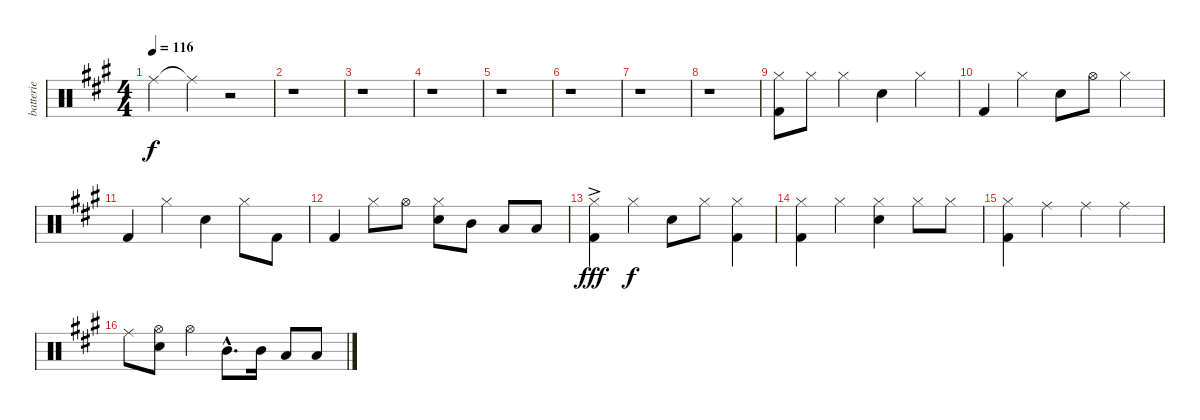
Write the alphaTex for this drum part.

\track ("batterie" "batterie") {instrument percussion}
\staff {score}
\articulation defaults
\ts (4 4)
\tempo 116
\clef neutral
\ks a "Ride (middle)".4{dy f} "Ride (middle)"{t}.4
r.2 |
r.1 |
r.1 |
r.1 |
r.1 |
r.1 |
r.1 |
r.1 |
("Hi-Hat (closed)" "Kick (hit) 2").8 "Hi-Hat (closed)".8 "Hi-Hat (closed)".4 "Snare (hit) 2".4 "Hi-Hat (closed)".4 |
"Kick (hit) 2".4 "Hi-Hat (closed)".4 "Snare (hit) 2".8 "Hi-Hat (open)".8 "Hi-Hat (closed)".4 |
"Kick (hit) 2".4 "Hi-Hat (closed)".4 "Snare (hit) 2".4 "Hi-Hat (closed)".8 "Kick (hit) 2".8 |
"Kick (hit) 2".4 "Hi-Hat (closed)".8 "Hi-Hat (open)".8 ("Hi-Hat (closed)" "Snare (hit) 2").8 "Mid Tom (hit)".8 "Low Tom (hit)".8 "Low Floor Tom (hit)".8 |
("Kick (hit) 2"{ac} "Hi-Hat (closed)").4{dy fff} "Hi-Hat (closed)".4{dy f} "Snare (hit) 2".8 "Hi-Hat (closed)".8 ("Kick (hit) 2" "Hi-Hat (closed)").4 |
("Hi-Hat (closed)" "Kick (hit) 2").4 "Hi-Hat (closed)".4 ("Hi-Hat (closed)" "Snare (hit) 2").4 "Hi-Hat (closed)".8 "Hi-Hat (closed)".8 |
("Hi-Hat (closed)" "Kick (hit) 2").4 "Ride (middle)".4 "Ride (middle)".4 "Ride (middle)".4 |
"Ride (middle)".8 ("Hi-Hat (open)" "Snare (hit) 2").8 "Hi-Hat (open)".4 "Mid Tom (hit)"{hac}.8{d} "Mid Tom (hit)".16 "Low Tom (hit)".8 "Low Floor Tom (hit)".8
